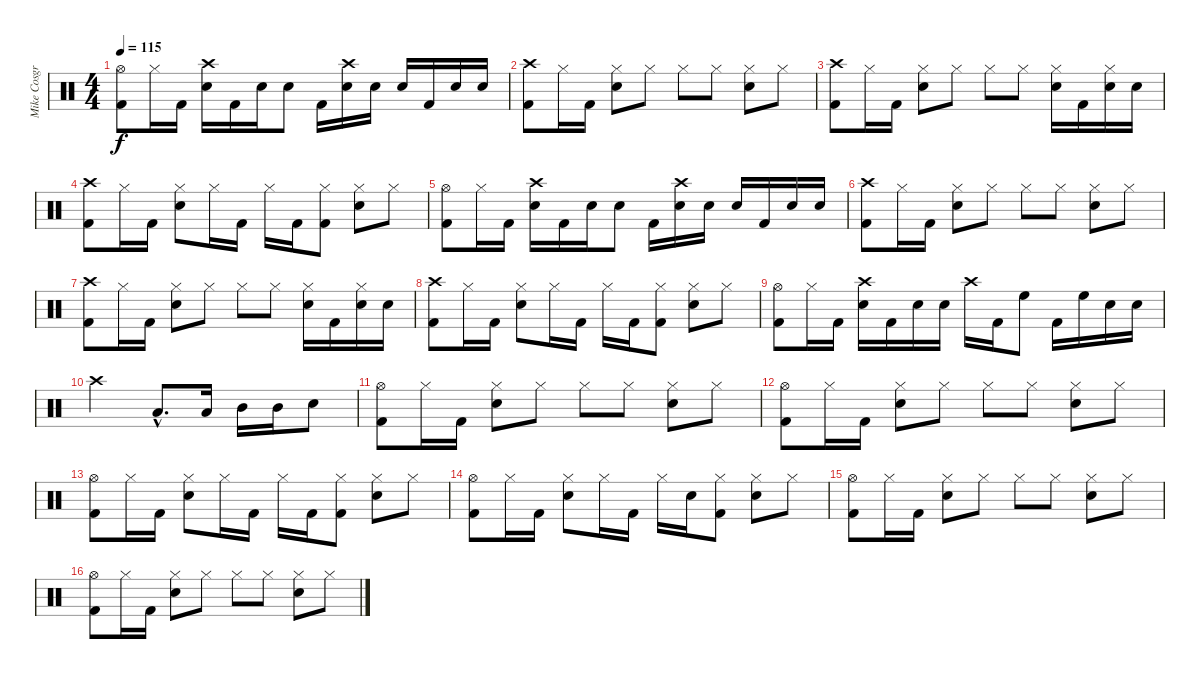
\track ("Mike Cosgrove" "Mike Cosgr") {instrument percussion}
\staff {score}
\articulation defaults
\ts (4 4)
\tempo 115
\clef neutral
\ks c
("Hi-Hat (open)" "Kick (hit) 2").8{dy f} "Hi-Hat (closed)".16 "Kick (hit) 2".16 ("Crash high (hit)" "Electric Snare (hit)").16 "Kick (hit) 2".16 "Electric Snare (hit)".16 "Electric Snare (hit)".8 "Kick (hit) 2".16 ("Crash high (hit)" "Electric Snare (hit)").16 "Electric Snare (hit)".16 "Electric Snare (hit)".16 "Kick (hit) 2".16 "Electric Snare (hit)".16 "Electric Snare (hit)".16 |
("Crash high (hit)" "Kick (hit) 2").8 "Hi-Hat (closed)".16 "Kick (hit) 2".16 ("Hi-Hat (closed)" "Electric Snare (hit)").8 "Hi-Hat (closed)".8 "Hi-Hat (closed)".8 "Hi-Hat (closed)".8 ("Hi-Hat (closed)" "Electric Snare (hit)").8 "Hi-Hat (closed)".8 |
("Crash high (hit)" "Kick (hit) 2").8 "Hi-Hat (closed)".16 "Kick (hit) 2".16 ("Hi-Hat (closed)" "Electric Snare (hit)").8 "Hi-Hat (closed)".8 "Hi-Hat (closed)".8 "Hi-Hat (closed)".8 ("Hi-Hat (closed)" "Electric Snare (hit)").16 "Kick (hit) 2".16 ("Hi-Hat (closed)" "Electric Snare (hit)").16 "Electric Snare (hit)".16 |
("Crash high (hit)" "Kick (hit) 2").8 "Hi-Hat (closed)".16 "Kick (hit) 2".16 ("Hi-Hat (closed)" "Electric Snare (hit)").8 "Hi-Hat (closed)".16 "Kick (hit) 2".16 "Hi-Hat (closed)".16 "Kick (hit) 2".16 ("Hi-Hat (closed)" "Kick (hit) 2").8 ("Hi-Hat (closed)" "Electric Snare (hit)").8 "Hi-Hat (closed)".8 |
("Hi-Hat (open)" "Kick (hit) 2").8 "Hi-Hat (closed)".16 "Kick (hit) 2".16 ("Crash high (hit)" "Electric Snare (hit)").16 "Kick (hit) 2".16 "Electric Snare (hit)".16 "Electric Snare (hit)".8 "Kick (hit) 2".16 ("Crash high (hit)" "Electric Snare (hit)").16 "Electric Snare (hit)".16 "Electric Snare (hit)".16 "Kick (hit) 2".16 "Electric Snare (hit)".16 "Electric Snare (hit)".16 |
("Crash high (hit)" "Kick (hit) 2").8 "Hi-Hat (closed)".16 "Kick (hit) 2".16 ("Hi-Hat (closed)" "Electric Snare (hit)").8 "Hi-Hat (closed)".8 "Hi-Hat (closed)".8 "Hi-Hat (closed)".8 ("Hi-Hat (closed)" "Electric Snare (hit)").8 "Hi-Hat (closed)".8 |
("Crash high (hit)" "Kick (hit) 2").8 "Hi-Hat (closed)".16 "Kick (hit) 2".16 ("Hi-Hat (closed)" "Electric Snare (hit)").8 "Hi-Hat (closed)".8 "Hi-Hat (closed)".8 "Hi-Hat (closed)".8 ("Hi-Hat (closed)" "Electric Snare (hit)").16 "Kick (hit) 2".16 ("Hi-Hat (closed)" "Electric Snare (hit)").16 "Electric Snare (hit)".16 |
("Crash high (hit)" "Kick (hit) 2").8 "Hi-Hat (closed)".16 "Kick (hit) 2".16 ("Hi-Hat (closed)" "Electric Snare (hit)").8 "Hi-Hat (closed)".16 "Kick (hit) 2".16 "Hi-Hat (closed)".16 "Kick (hit) 2".16 ("Hi-Hat (closed)" "Kick (hit) 2").8 ("Hi-Hat (closed)" "Electric Snare (hit)").8 "Hi-Hat (closed)".8 |
("Hi-Hat (open)" "Kick (hit) 2").8 "Hi-Hat (closed)".16 "Kick (hit) 2".16 ("Crash high (hit)" "Electric Snare (hit)").16 "Kick (hit) 2".16 "Electric Snare (hit)".16 "Electric Snare (hit)".16 "Crash high (hit)".16 "Kick (hit) 2".16 "High Floor Tom (hit)".8 "Kick (hit) 2".16 "High Floor Tom (hit)".16 "Electric Snare (hit)".16 "Electric Snare (hit)".16 |
"Crash high (hit)".2 "Low Tom (hit)"{hac}.8{d} "Low Tom (hit)".16 "Mid Tom (hit)".16 "Mid Tom (hit)".16 "Electric Snare (hit)".8 |
("Hi-Hat (open)" "Kick (hit) 2").8 "Hi-Hat (closed)".16 "Kick (hit) 2".16 ("Hi-Hat (closed)" "Electric Snare (hit)").8 "Hi-Hat (closed)".8 "Hi-Hat (closed)".8 "Hi-Hat (closed)".8 ("Hi-Hat (closed)" "Electric Snare (hit)").8 "Hi-Hat (closed)".8 |
("Hi-Hat (open)" "Kick (hit) 2").8 "Hi-Hat (closed)".16 "Kick (hit) 2".16 ("Hi-Hat (closed)" "Electric Snare (hit)").8 "Hi-Hat (closed)".8 "Hi-Hat (closed)".8 "Hi-Hat (closed)".8 ("Hi-Hat (closed)" "Electric Snare (hit)").8 "Hi-Hat (closed)".8 |
("Hi-Hat (open)" "Kick (hit) 2").8 "Hi-Hat (closed)".16 "Kick (hit) 2".16 ("Hi-Hat (closed)" "Electric Snare (hit)").8 "Hi-Hat (closed)".16 "Kick (hit) 2".16 "Hi-Hat (closed)".16 "Kick (hit) 2".16 ("Hi-Hat (closed)" "Kick (hit) 2").8 ("Hi-Hat (closed)" "Electric Snare (hit)").8 "Hi-Hat (closed)".8 |
("Hi-Hat (open)" "Kick (hit) 2").8 "Hi-Hat (closed)".16 "Kick (hit) 2".16 ("Hi-Hat (closed)" "Electric Snare (hit)").8 "Hi-Hat (closed)".16 "Kick (hit) 2".16 "Hi-Hat (closed)".16 "Electric Snare (hit)".16 ("Hi-Hat (closed)" "Kick (hit) 2").8 ("Hi-Hat (closed)" "Electric Snare (hit)").8 "Hi-Hat (closed)".8 |
("Hi-Hat (open)" "Kick (hit) 2").8 "Hi-Hat (closed)".16 "Kick (hit) 2".16 ("Hi-Hat (closed)" "Electric Snare (hit)").8 "Hi-Hat (closed)".8 "Hi-Hat (closed)".8 "Hi-Hat (closed)".8 ("Hi-Hat (closed)" "Electric Snare (hit)").8 "Hi-Hat (closed)".8 |
("Hi-Hat (open)" "Kick (hit) 2").8 "Hi-Hat (closed)".16 "Kick (hit) 2".16 ("Hi-Hat (closed)" "Electric Snare (hit)").8 "Hi-Hat (closed)".8 "Hi-Hat (closed)".8 "Hi-Hat (closed)".8 ("Hi-Hat (closed)" "Electric Snare (hit)").8 "Hi-Hat (closed)".8
